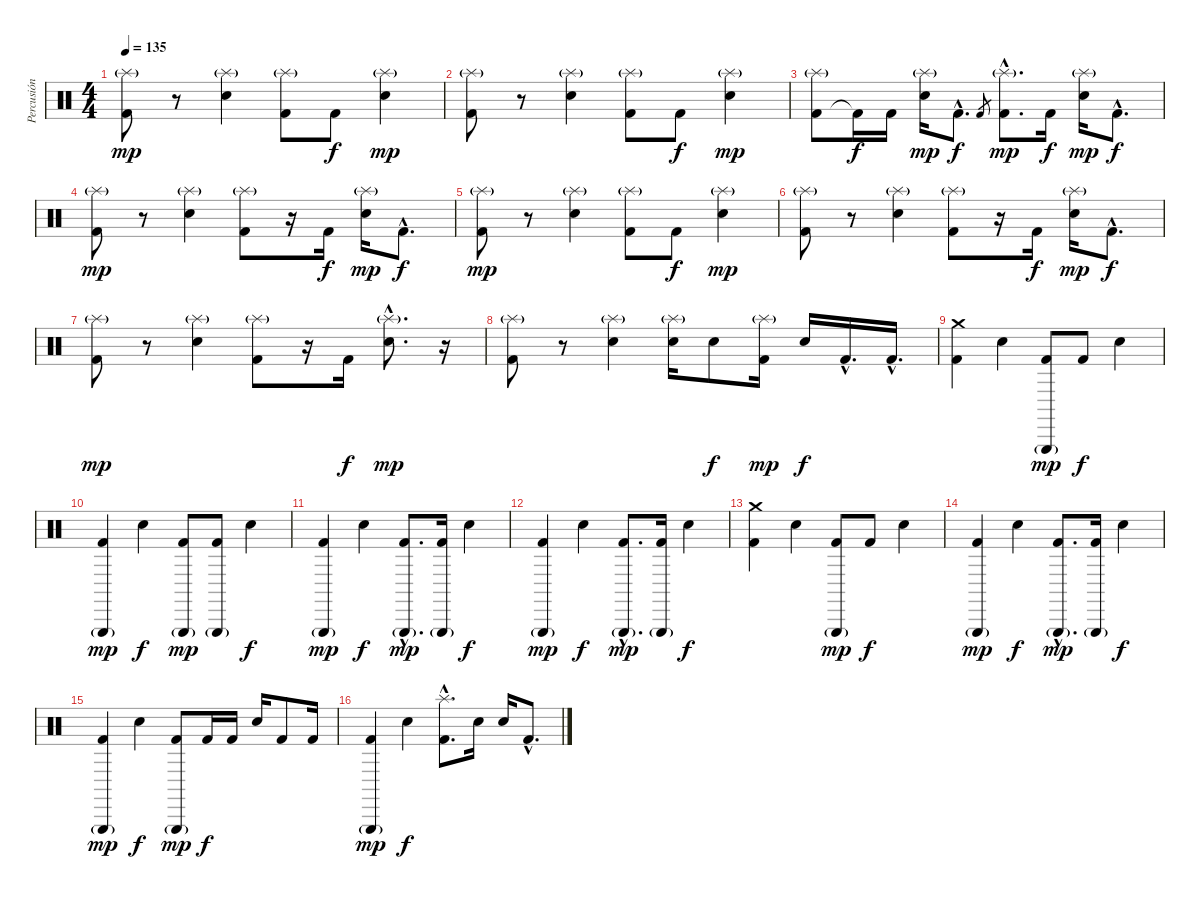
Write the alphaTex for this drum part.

\track ("Percusión" "Percusión") {instrument percussion}
\staff {score}
\articulation defaults
\ts (4 4)
\tempo 135
\clef neutral
\ks c
("Kick (hit) 2" "Splash (hit)"{g}).8{dy mp} r.8 ("Snare (hit) 2" "Splash (hit)"{g}).4 ("Kick (hit) 2" "Splash (hit)"{g}).8 "Kick (hit) 2".8{dy f} ("Snare (hit) 2" "Splash (hit)"{g}).4{dy mp} |
("Kick (hit) 2" "Splash (hit)"{g}).8 r.8 ("Snare (hit) 2" "Splash (hit)"{g}).4 ("Kick (hit) 2" "Splash (hit)"{g}).8 "Kick (hit) 2".8{dy f} ("Snare (hit) 2" "Splash (hit)"{g}).4{dy mp} |
("Kick (hit) 2" "Splash (hit)"{g}).8 "Kick (hit) 2"{t}.16{dy f} "Kick (hit) 2".16 ("Snare (hit) 2" "Splash (hit)"{g}).16{dy mp} "Kick (hit) 2"{hac}.8{d dy f} "Kick (hit) 2".8{gr} ("Kick (hit) 2"{hac} "Splash (hit)"{g hac}).8{d dy mp} "Kick (hit) 2".16{dy f} ("Snare (hit) 2" "Splash (hit)"{g}).16{dy mp} "Kick (hit) 2"{hac}.8{d dy f} |
("Kick (hit) 2" "Splash (hit)"{g}).8{dy mp} r.8 ("Snare (hit) 2" "Splash (hit)"{g}).4 ("Kick (hit) 2" "Splash (hit)"{g}).8 r.16 "Kick (hit) 2".16{dy f} ("Snare (hit) 2" "Splash (hit)"{g}).16{dy mp} "Kick (hit) 2"{hac}.8{d dy f} |
("Kick (hit) 2" "Splash (hit)"{g}).8{dy mp} r.8 ("Snare (hit) 2" "Splash (hit)"{g}).4 ("Kick (hit) 2" "Splash (hit)"{g}).8 "Kick (hit) 2".8{dy f} ("Snare (hit) 2" "Splash (hit)"{g}).4{dy mp} |
("Kick (hit) 2" "Splash (hit)"{g}).8 r.8 ("Snare (hit) 2" "Splash (hit)"{g}).4 ("Kick (hit) 2" "Splash (hit)"{g}).8 r.16 "Kick (hit) 2".16{dy f} ("Snare (hit) 2" "Splash (hit)"{g}).16{dy mp} "Kick (hit) 2"{hac}.8{d dy f} |
("Kick (hit) 2" "Splash (hit)"{g}).8{dy mp} r.8 ("Snare (hit) 2" "Splash (hit)"{g}).4 ("Kick (hit) 2" "Splash (hit)"{g}).8 r.16 "Kick (hit) 2".16{dy f} ("Snare (hit) 2"{hac} "Splash (hit)"{g hac}).8{d dy mp} r.16 |
("Kick (hit) 2" "Splash (hit)"{g}).8 r.8 ("Snare (hit) 2" "Splash (hit)"{g}).4 ("Snare (hit) 2" "Splash (hit)"{g}).16 "Snare (hit) 2".8{dy f} ("Kick (hit) 2" "Splash (hit)"{g}).16{dy mp} "Snare (hit) 2".16{dy f} "Kick (hit) 2"{hac}.16{d} "Kick (hit) 2"{hac}.16{d} |
("Kick (hit) 2" "Crash medium (hit)").4 "Snare (hit) 2".4 ("Kick (hit) 2" "Triangle (hit)"{g}).8{dy mp} "Kick (hit) 2".8{dy f} "Snare (hit) 2".4 |
("Kick (hit) 2" "Triangle (hit)"{g}).4{dy mp} "Snare (hit) 2".4{dy f} ("Kick (hit) 2" "Triangle (hit)"{g}).8{dy mp} ("Kick (hit) 2" "Triangle (hit)"{g}).8 "Snare (hit) 2".4{dy f} |
("Kick (hit) 2" "Triangle (hit)"{g}).4{dy mp} "Snare (hit) 2".4{dy f} ("Kick (hit) 2"{hac} "Triangle (hit)"{g hac}).8{d dy mp} ("Kick (hit) 2" "Triangle (hit)"{g}).16 "Snare (hit) 2".4{dy f} |
("Kick (hit) 2" "Triangle (hit)"{g}).4{dy mp} "Snare (hit) 2".4{dy f} ("Kick (hit) 2"{hac} "Triangle (hit)"{g hac}).8{d dy mp} ("Kick (hit) 2" "Triangle (hit)"{g}).16 "Snare (hit) 2".4{dy f} |
("Kick (hit) 2" "Crash medium (hit)").4 "Snare (hit) 2".4 ("Kick (hit) 2" "Triangle (hit)"{g}).8{dy mp} "Kick (hit) 2".8{dy f} "Snare (hit) 2".4 |
("Kick (hit) 2" "Triangle (hit)"{g}).4{dy mp} "Snare (hit) 2".4{dy f} ("Kick (hit) 2"{hac} "Triangle (hit)"{g hac}).8{d dy mp} ("Kick (hit) 2" "Triangle (hit)"{g}).16 "Snare (hit) 2".4{dy f} |
("Kick (hit) 2" "Triangle (hit)"{g}).4{dy mp} "Snare (hit) 2".4{dy f} ("Kick (hit) 2" "Triangle (hit)"{g}).8{dy mp} "Kick (hit) 2".16{dy f} "Kick (hit) 2".16 "Snare (hit) 2".16 "Kick (hit) 2".8 "Kick (hit) 2".16 |
("Kick (hit) 2" "Triangle (hit)"{g}).4{dy mp} "Snare (hit) 2".4{dy f} ("Kick (hit) 2"{hac} "Splash (hit)"{hac}).8{d} "Snare (hit) 2".16 "Snare (hit) 2".16 "Kick (hit) 2"{hac}.8{d}
